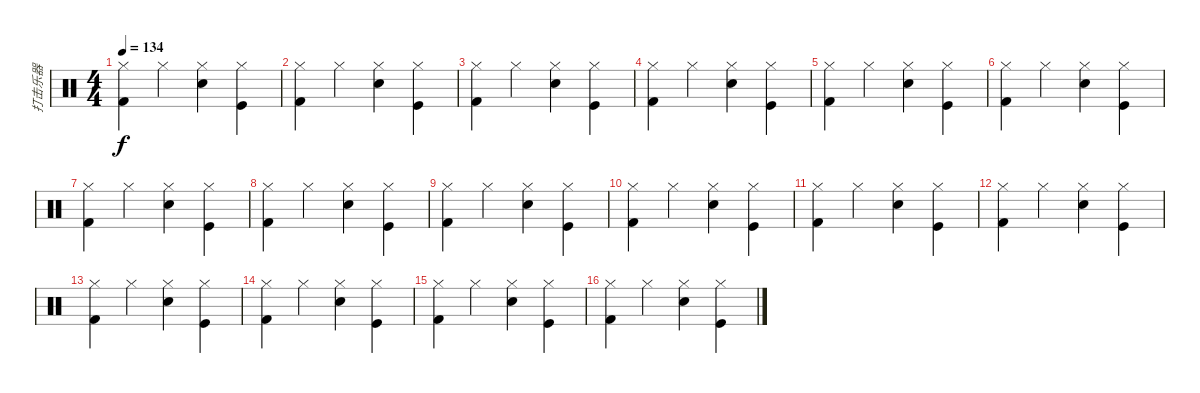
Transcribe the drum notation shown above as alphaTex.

\track ("打击乐器" "打击乐器") {instrument percussion}
\staff {score}
\articulation defaults
\ts (4 4)
\tempo 134
\clef neutral
\ks c
("Hi-Hat (closed)" "Kick (hit) 2").4{dy f} "Hi-Hat (closed)".4 ("Hi-Hat (closed)" "Snare (hit) 2").4 ("Kick (hit)" "Hi-Hat (closed)").4 |
("Hi-Hat (closed)" "Kick (hit) 2").4 "Hi-Hat (closed)".4 ("Hi-Hat (closed)" "Snare (hit) 2").4 ("Kick (hit)" "Hi-Hat (closed)").4 |
("Hi-Hat (closed)" "Kick (hit) 2").4 "Hi-Hat (closed)".4 ("Hi-Hat (closed)" "Snare (hit) 2").4 ("Kick (hit)" "Hi-Hat (closed)").4 |
("Hi-Hat (closed)" "Kick (hit) 2").4 "Hi-Hat (closed)".4 ("Hi-Hat (closed)" "Snare (hit) 2").4 ("Kick (hit)" "Hi-Hat (closed)").4 |
("Hi-Hat (closed)" "Kick (hit) 2").4 "Hi-Hat (closed)".4 ("Hi-Hat (closed)" "Snare (hit) 2").4 ("Kick (hit)" "Hi-Hat (closed)").4 |
("Hi-Hat (closed)" "Kick (hit) 2").4 "Hi-Hat (closed)".4 ("Hi-Hat (closed)" "Snare (hit) 2").4 ("Kick (hit)" "Hi-Hat (closed)").4 |
("Hi-Hat (closed)" "Kick (hit) 2").4 "Hi-Hat (closed)".4 ("Hi-Hat (closed)" "Snare (hit) 2").4 ("Kick (hit)" "Hi-Hat (closed)").4 |
("Hi-Hat (closed)" "Kick (hit) 2").4 "Hi-Hat (closed)".4 ("Hi-Hat (closed)" "Snare (hit) 2").4 ("Kick (hit)" "Hi-Hat (closed)").4 |
("Hi-Hat (closed)" "Kick (hit) 2").4 "Hi-Hat (closed)".4 ("Hi-Hat (closed)" "Snare (hit) 2").4 ("Kick (hit)" "Hi-Hat (closed)").4 |
("Hi-Hat (closed)" "Kick (hit) 2").4 "Hi-Hat (closed)".4 ("Hi-Hat (closed)" "Snare (hit) 2").4 ("Kick (hit)" "Hi-Hat (closed)").4 |
("Hi-Hat (closed)" "Kick (hit) 2").4 "Hi-Hat (closed)".4 ("Hi-Hat (closed)" "Snare (hit) 2").4 ("Kick (hit)" "Hi-Hat (closed)").4 |
("Hi-Hat (closed)" "Kick (hit) 2").4 "Hi-Hat (closed)".4 ("Hi-Hat (closed)" "Snare (hit) 2").4 ("Kick (hit)" "Hi-Hat (closed)").4 |
("Hi-Hat (closed)" "Kick (hit) 2").4 "Hi-Hat (closed)".4 ("Hi-Hat (closed)" "Snare (hit) 2").4 ("Kick (hit)" "Hi-Hat (closed)").4 |
("Hi-Hat (closed)" "Kick (hit) 2").4 "Hi-Hat (closed)".4 ("Hi-Hat (closed)" "Snare (hit) 2").4 ("Kick (hit)" "Hi-Hat (closed)").4 |
("Hi-Hat (closed)" "Kick (hit) 2").4 "Hi-Hat (closed)".4 ("Hi-Hat (closed)" "Snare (hit) 2").4 ("Kick (hit)" "Hi-Hat (closed)").4 |
("Hi-Hat (closed)" "Kick (hit) 2").4 "Hi-Hat (closed)".4 ("Hi-Hat (closed)" "Snare (hit) 2").4 ("Kick (hit)" "Hi-Hat (closed)").4
